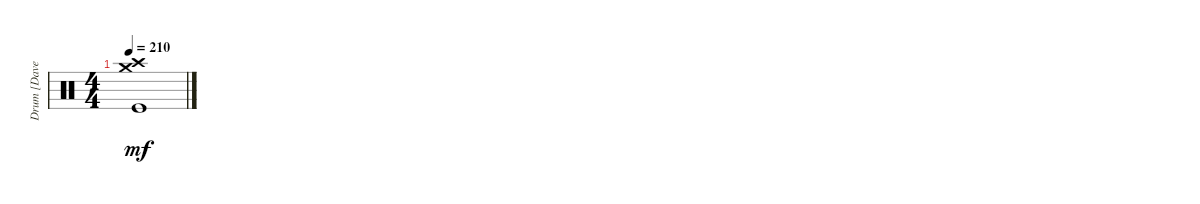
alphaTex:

\track ("Drum [Dave Grohl]" "Drum [Dave") {instrument percussion bank 84}
\staff {score}
\articulation defaults
\ts (4 4)
\tempo 210
\clef neutral
\ks c
("Crash high (hit)" "Crash medium (hit)" "Kick (hit)").1{dy mf}
